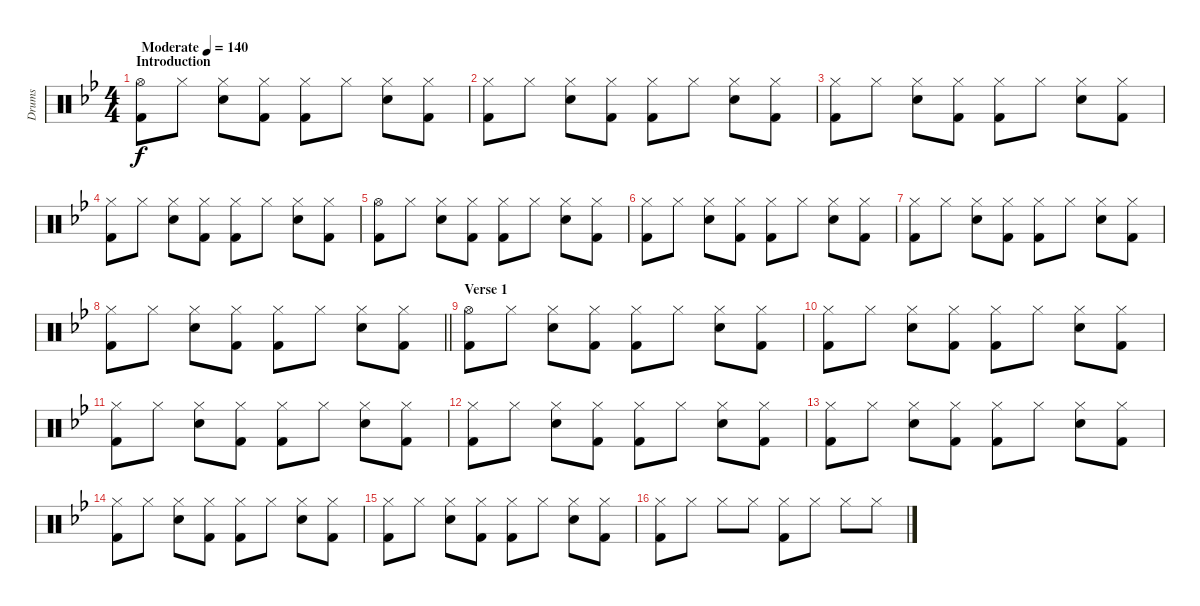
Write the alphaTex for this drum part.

\track ("Drums" "Drums") {instrument percussion}
\staff {score}
\articulation defaults
\ts (4 4)
\section ("" "Introduction")
\tempo (140 "Moderate")
\clef neutral
\ks bb
("Hi-Hat (open)" "Kick (hit) 2").8{dy f} "Hi-Hat (closed)".8 ("Hi-Hat (closed)" "Snare (hit) 2").8 ("Hi-Hat (closed)" "Kick (hit) 2").8 ("Hi-Hat (closed)" "Kick (hit) 2").8 "Hi-Hat (closed)".8 ("Hi-Hat (closed)" "Snare (hit) 2").8 ("Hi-Hat (closed)" "Kick (hit) 2").8 |
("Hi-Hat (closed)" "Kick (hit) 2").8 "Hi-Hat (closed)".8 ("Hi-Hat (closed)" "Snare (hit) 2").8 ("Hi-Hat (closed)" "Kick (hit) 2").8 ("Hi-Hat (closed)" "Kick (hit) 2").8 "Hi-Hat (closed)".8 ("Hi-Hat (closed)" "Snare (hit) 2").8 ("Hi-Hat (closed)" "Kick (hit) 2").8 |
("Hi-Hat (closed)" "Kick (hit) 2").8 "Hi-Hat (closed)".8 ("Hi-Hat (closed)" "Snare (hit) 2").8 ("Hi-Hat (closed)" "Kick (hit) 2").8 ("Hi-Hat (closed)" "Kick (hit) 2").8 "Hi-Hat (closed)".8 ("Hi-Hat (closed)" "Snare (hit) 2").8 ("Hi-Hat (closed)" "Kick (hit) 2").8 |
("Hi-Hat (closed)" "Kick (hit) 2").8 "Hi-Hat (closed)".8 ("Hi-Hat (closed)" "Snare (hit) 2").8 ("Hi-Hat (closed)" "Kick (hit) 2").8 ("Hi-Hat (closed)" "Kick (hit) 2").8 "Hi-Hat (closed)".8 ("Hi-Hat (closed)" "Snare (hit) 2").8 ("Hi-Hat (closed)" "Kick (hit) 2").8 |
("Hi-Hat (open)" "Kick (hit) 2").8 "Hi-Hat (closed)".8 ("Hi-Hat (closed)" "Snare (hit) 2").8 ("Hi-Hat (closed)" "Kick (hit) 2").8 ("Hi-Hat (closed)" "Kick (hit) 2").8 "Hi-Hat (closed)".8 ("Hi-Hat (closed)" "Snare (hit) 2").8 ("Hi-Hat (closed)" "Kick (hit) 2").8 |
("Hi-Hat (closed)" "Kick (hit) 2").8 "Hi-Hat (closed)".8 ("Hi-Hat (closed)" "Snare (hit) 2").8 ("Hi-Hat (closed)" "Kick (hit) 2").8 ("Hi-Hat (closed)" "Kick (hit) 2").8 "Hi-Hat (closed)".8 ("Hi-Hat (closed)" "Snare (hit) 2").8 ("Hi-Hat (closed)" "Kick (hit) 2").8 |
("Hi-Hat (closed)" "Kick (hit) 2").8 "Hi-Hat (closed)".8 ("Hi-Hat (closed)" "Snare (hit) 2").8 ("Hi-Hat (closed)" "Kick (hit) 2").8 ("Hi-Hat (closed)" "Kick (hit) 2").8 "Hi-Hat (closed)".8 ("Hi-Hat (closed)" "Snare (hit) 2").8 ("Hi-Hat (closed)" "Kick (hit) 2").8 |
\barLineRight lightlight
("Hi-Hat (closed)" "Kick (hit) 2").8 "Hi-Hat (closed)".8 ("Hi-Hat (closed)" "Snare (hit) 2").8 ("Hi-Hat (closed)" "Kick (hit) 2").8 ("Hi-Hat (closed)" "Kick (hit) 2").8 "Hi-Hat (closed)".8 ("Hi-Hat (closed)" "Snare (hit) 2").8 ("Hi-Hat (closed)" "Kick (hit) 2").8 |
\section ("" "Verse 1")
("Hi-Hat (open)" "Kick (hit) 2").8 "Hi-Hat (closed)".8 ("Hi-Hat (closed)" "Snare (hit) 2").8 ("Hi-Hat (closed)" "Kick (hit) 2").8 ("Hi-Hat (closed)" "Kick (hit) 2").8 "Hi-Hat (closed)".8 ("Hi-Hat (closed)" "Snare (hit) 2").8 ("Hi-Hat (closed)" "Kick (hit) 2").8 |
("Hi-Hat (closed)" "Kick (hit) 2").8 "Hi-Hat (closed)".8 ("Hi-Hat (closed)" "Snare (hit) 2").8 ("Hi-Hat (closed)" "Kick (hit) 2").8 ("Hi-Hat (closed)" "Kick (hit) 2").8 "Hi-Hat (closed)".8 ("Hi-Hat (closed)" "Snare (hit) 2").8 ("Hi-Hat (closed)" "Kick (hit) 2").8 |
("Hi-Hat (closed)" "Kick (hit) 2").8 "Hi-Hat (closed)".8 ("Hi-Hat (closed)" "Snare (hit) 2").8 ("Hi-Hat (closed)" "Kick (hit) 2").8 ("Hi-Hat (closed)" "Kick (hit) 2").8 "Hi-Hat (closed)".8 ("Hi-Hat (closed)" "Snare (hit) 2").8 ("Hi-Hat (closed)" "Kick (hit) 2").8 |
("Hi-Hat (closed)" "Kick (hit) 2").8 "Hi-Hat (closed)".8 ("Hi-Hat (closed)" "Snare (hit) 2").8 ("Hi-Hat (closed)" "Kick (hit) 2").8 ("Hi-Hat (closed)" "Kick (hit) 2").8 "Hi-Hat (closed)".8 ("Hi-Hat (closed)" "Snare (hit) 2").8 ("Hi-Hat (closed)" "Kick (hit) 2").8 |
("Hi-Hat (closed)" "Kick (hit) 2").8 "Hi-Hat (closed)".8 ("Hi-Hat (closed)" "Snare (hit) 2").8 ("Hi-Hat (closed)" "Kick (hit) 2").8 ("Hi-Hat (closed)" "Kick (hit) 2").8 "Hi-Hat (closed)".8 ("Hi-Hat (closed)" "Snare (hit) 2").8 ("Hi-Hat (closed)" "Kick (hit) 2").8 |
("Hi-Hat (closed)" "Kick (hit) 2").8 "Hi-Hat (closed)".8 ("Hi-Hat (closed)" "Snare (hit) 2").8 ("Hi-Hat (closed)" "Kick (hit) 2").8 ("Hi-Hat (closed)" "Kick (hit) 2").8 "Hi-Hat (closed)".8 ("Hi-Hat (closed)" "Snare (hit) 2").8 ("Hi-Hat (closed)" "Kick (hit) 2").8 |
("Hi-Hat (closed)" "Kick (hit) 2").8 "Hi-Hat (closed)".8 ("Hi-Hat (closed)" "Snare (hit) 2").8 ("Hi-Hat (closed)" "Kick (hit) 2").8 ("Hi-Hat (closed)" "Kick (hit) 2").8 "Hi-Hat (closed)".8 ("Hi-Hat (closed)" "Snare (hit) 2").8 ("Hi-Hat (closed)" "Kick (hit) 2").8 |
("Hi-Hat (closed)" "Kick (hit) 2").8 "Hi-Hat (closed)".8 "Hi-Hat (closed)".8 "Hi-Hat (closed)".8 ("Hi-Hat (closed)" "Kick (hit) 2").8 "Hi-Hat (closed)".8 "Hi-Hat (closed)".8 "Hi-Hat (closed)".8
